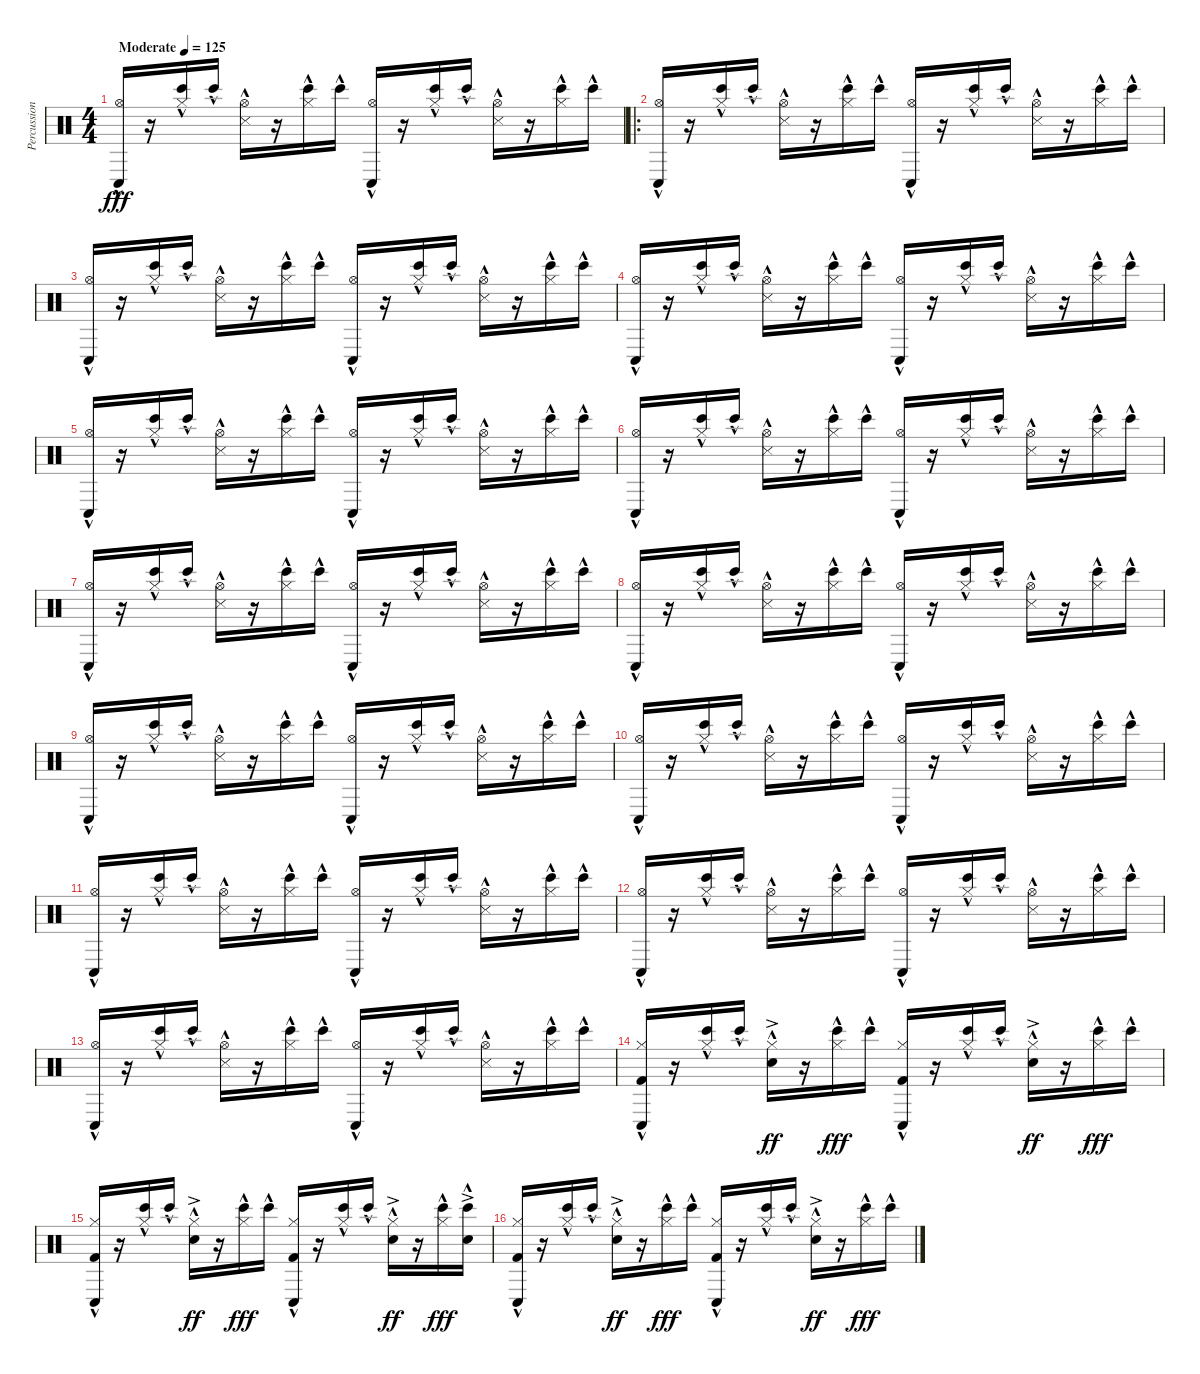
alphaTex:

\track ("Percussion" "Percussion") {instrument percussion}
\staff {score}
\articulation defaults
\ts (4 4)
\tempo (125 "Moderate")
\clef neutral
\ks c
("Hi-Hat (open)"{hac} "Conga low (hit)"{hac}).16{dy fff} r.16 ("Hi-Hat (closed)"{hac} "Bongo High (hit)"{hac}).16 "Bongo High (hit)"{hac}.16 ("Hi-Hat (open)"{hac} "Snare (side stick) 3"{hac}).16 r.16 ("Hi-Hat (closed)"{hac} "Bongo High (hit)"{hac}).16 "Bongo High (hit)"{hac}.16 ("Hi-Hat (open)"{hac} "Conga low (hit)"{hac}).16 r.16 ("Hi-Hat (closed)"{hac} "Bongo High (hit)"{hac}).16 "Bongo High (hit)"{hac}.16 ("Hi-Hat (open)"{hac} "Snare (side stick) 3"{hac}).16 r.16 ("Hi-Hat (closed)"{hac} "Bongo High (hit)"{hac}).16 "Bongo High (hit)"{hac}.16 |
\ro
("Hi-Hat (open)"{hac} "Conga low (hit)"{hac}).16 r.16 ("Hi-Hat (closed)"{hac} "Bongo High (hit)"{hac}).16 "Bongo High (hit)"{hac}.16 ("Hi-Hat (open)"{hac} "Snare (side stick) 3"{hac}).16 r.16 ("Hi-Hat (closed)"{hac} "Bongo High (hit)"{hac}).16 "Bongo High (hit)"{hac}.16 ("Hi-Hat (open)"{hac} "Conga low (hit)"{hac}).16 r.16 ("Hi-Hat (closed)"{hac} "Bongo High (hit)"{hac}).16 "Bongo High (hit)"{hac}.16 ("Hi-Hat (open)"{hac} "Snare (side stick) 3"{hac}).16 r.16 ("Hi-Hat (closed)"{hac} "Bongo High (hit)"{hac}).16 "Bongo High (hit)"{hac}.16 |
("Hi-Hat (open)"{hac} "Conga low (hit)"{hac}).16 r.16 ("Hi-Hat (closed)"{hac} "Bongo High (hit)"{hac}).16 "Bongo High (hit)"{hac}.16 ("Hi-Hat (open)"{hac} "Snare (side stick) 3"{hac}).16 r.16 ("Hi-Hat (closed)"{hac} "Bongo High (hit)"{hac}).16 "Bongo High (hit)"{hac}.16 ("Hi-Hat (open)"{hac} "Conga low (hit)"{hac}).16 r.16 ("Hi-Hat (closed)"{hac} "Bongo High (hit)"{hac}).16 "Bongo High (hit)"{hac}.16 ("Hi-Hat (open)"{hac} "Snare (side stick) 3"{hac}).16 r.16 ("Hi-Hat (closed)"{hac} "Bongo High (hit)"{hac}).16 "Bongo High (hit)"{hac}.16 |
("Hi-Hat (open)"{hac} "Conga low (hit)"{hac}).16 r.16 ("Hi-Hat (closed)"{hac} "Bongo High (hit)"{hac}).16 "Bongo High (hit)"{hac}.16 ("Hi-Hat (open)"{hac} "Snare (side stick) 3"{hac}).16 r.16 ("Hi-Hat (closed)"{hac} "Bongo High (hit)"{hac}).16 "Bongo High (hit)"{hac}.16 ("Hi-Hat (open)"{hac} "Conga low (hit)"{hac}).16 r.16 ("Hi-Hat (closed)"{hac} "Bongo High (hit)"{hac}).16 "Bongo High (hit)"{hac}.16 ("Hi-Hat (open)"{hac} "Snare (side stick) 3"{hac}).16 r.16 ("Hi-Hat (closed)"{hac} "Bongo High (hit)"{hac}).16 "Bongo High (hit)"{hac}.16 |
("Hi-Hat (open)"{hac} "Conga low (hit)"{hac}).16 r.16 ("Hi-Hat (closed)"{hac} "Bongo High (hit)"{hac}).16 "Bongo High (hit)"{hac}.16 ("Hi-Hat (open)"{hac} "Snare (side stick) 3"{hac}).16 r.16 ("Hi-Hat (closed)"{hac} "Bongo High (hit)"{hac}).16 "Bongo High (hit)"{hac}.16 ("Hi-Hat (open)"{hac} "Conga low (hit)"{hac}).16 r.16 ("Hi-Hat (closed)"{hac} "Bongo High (hit)"{hac}).16 "Bongo High (hit)"{hac}.16 ("Hi-Hat (open)"{hac} "Snare (side stick) 3"{hac}).16 r.16 ("Hi-Hat (closed)"{hac} "Bongo High (hit)"{hac}).16 "Bongo High (hit)"{hac}.16 |
("Hi-Hat (open)"{hac} "Conga low (hit)"{hac}).16 r.16 ("Hi-Hat (closed)"{hac} "Bongo High (hit)"{hac}).16 "Bongo High (hit)"{hac}.16 ("Hi-Hat (open)"{hac} "Snare (side stick) 3"{hac}).16 r.16 ("Hi-Hat (closed)"{hac} "Bongo High (hit)"{hac}).16 "Bongo High (hit)"{hac}.16 ("Hi-Hat (open)"{hac} "Conga low (hit)"{hac}).16 r.16 ("Hi-Hat (closed)"{hac} "Bongo High (hit)"{hac}).16 "Bongo High (hit)"{hac}.16 ("Hi-Hat (open)"{hac} "Snare (side stick) 3"{hac}).16 r.16 ("Hi-Hat (closed)"{hac} "Bongo High (hit)"{hac}).16 "Bongo High (hit)"{hac}.16 |
("Hi-Hat (open)"{hac} "Conga low (hit)"{hac}).16 r.16 ("Hi-Hat (closed)"{hac} "Bongo High (hit)"{hac}).16 "Bongo High (hit)"{hac}.16 ("Hi-Hat (open)"{hac} "Snare (side stick) 3"{hac}).16 r.16 ("Hi-Hat (closed)"{hac} "Bongo High (hit)"{hac}).16 "Bongo High (hit)"{hac}.16 ("Hi-Hat (open)"{hac} "Conga low (hit)"{hac}).16 r.16 ("Hi-Hat (closed)"{hac} "Bongo High (hit)"{hac}).16 "Bongo High (hit)"{hac}.16 ("Hi-Hat (open)"{hac} "Snare (side stick) 3"{hac}).16 r.16 ("Hi-Hat (closed)"{hac} "Bongo High (hit)"{hac}).16 "Bongo High (hit)"{hac}.16 |
("Hi-Hat (open)"{hac} "Conga low (hit)"{hac}).16 r.16 ("Hi-Hat (closed)"{hac} "Bongo High (hit)"{hac}).16 "Bongo High (hit)"{hac}.16 ("Hi-Hat (open)"{hac} "Snare (side stick) 3"{hac}).16 r.16 ("Hi-Hat (closed)"{hac} "Bongo High (hit)"{hac}).16 "Bongo High (hit)"{hac}.16 ("Hi-Hat (open)"{hac} "Conga low (hit)"{hac}).16 r.16 ("Hi-Hat (closed)"{hac} "Bongo High (hit)"{hac}).16 "Bongo High (hit)"{hac}.16 ("Hi-Hat (open)"{hac} "Snare (side stick) 3"{hac}).16 r.16 ("Hi-Hat (closed)"{hac} "Bongo High (hit)"{hac}).16 "Bongo High (hit)"{hac}.16 |
("Hi-Hat (open)"{hac} "Conga low (hit)"{hac}).16 r.16 ("Hi-Hat (closed)"{hac} "Bongo High (hit)"{hac}).16 "Bongo High (hit)"{hac}.16 ("Hi-Hat (open)"{hac} "Snare (side stick) 3"{hac}).16 r.16 ("Hi-Hat (closed)"{hac} "Bongo High (hit)"{hac}).16 "Bongo High (hit)"{hac}.16 ("Hi-Hat (open)"{hac} "Conga low (hit)"{hac}).16 r.16 ("Hi-Hat (closed)"{hac} "Bongo High (hit)"{hac}).16 "Bongo High (hit)"{hac}.16 ("Hi-Hat (open)"{hac} "Snare (side stick) 3"{hac}).16 r.16 ("Hi-Hat (closed)"{hac} "Bongo High (hit)"{hac}).16 "Bongo High (hit)"{hac}.16 |
("Hi-Hat (open)"{hac} "Conga low (hit)"{hac}).16 r.16 ("Hi-Hat (closed)"{hac} "Bongo High (hit)"{hac}).16 "Bongo High (hit)"{hac}.16 ("Hi-Hat (open)"{hac} "Snare (side stick) 3"{hac}).16 r.16 ("Hi-Hat (closed)"{hac} "Bongo High (hit)"{hac}).16 "Bongo High (hit)"{hac}.16 ("Hi-Hat (open)"{hac} "Conga low (hit)"{hac}).16 r.16 ("Hi-Hat (closed)"{hac} "Bongo High (hit)"{hac}).16 "Bongo High (hit)"{hac}.16 ("Hi-Hat (open)"{hac} "Snare (side stick) 3"{hac}).16 r.16 ("Hi-Hat (closed)"{hac} "Bongo High (hit)"{hac}).16 "Bongo High (hit)"{hac}.16 |
("Hi-Hat (open)"{hac} "Conga low (hit)"{hac}).16 r.16 ("Hi-Hat (closed)"{hac} "Bongo High (hit)"{hac}).16 "Bongo High (hit)"{hac}.16 ("Hi-Hat (open)"{hac} "Snare (side stick) 3"{hac}).16 r.16 ("Hi-Hat (closed)"{hac} "Bongo High (hit)"{hac}).16 "Bongo High (hit)"{hac}.16 ("Hi-Hat (open)"{hac} "Conga low (hit)"{hac}).16 r.16 ("Hi-Hat (closed)"{hac} "Bongo High (hit)"{hac}).16 "Bongo High (hit)"{hac}.16 ("Hi-Hat (open)"{hac} "Snare (side stick) 3"{hac}).16 r.16 ("Hi-Hat (closed)"{hac} "Bongo High (hit)"{hac}).16 "Bongo High (hit)"{hac}.16 |
("Hi-Hat (open)"{hac} "Conga low (hit)"{hac}).16 r.16 ("Hi-Hat (closed)"{hac} "Bongo High (hit)"{hac}).16 "Bongo High (hit)"{hac}.16 ("Hi-Hat (open)"{hac} "Snare (side stick) 3"{hac}).16 r.16 ("Hi-Hat (closed)"{hac} "Bongo High (hit)"{hac}).16 "Bongo High (hit)"{hac}.16 ("Hi-Hat (open)"{hac} "Conga low (hit)"{hac}).16 r.16 ("Hi-Hat (closed)"{hac} "Bongo High (hit)"{hac}).16 "Bongo High (hit)"{hac}.16 ("Hi-Hat (open)"{hac} "Snare (side stick) 3"{hac}).16 r.16 ("Hi-Hat (closed)"{hac} "Bongo High (hit)"{hac}).16 "Bongo High (hit)"{hac}.16 |
("Hi-Hat (open)"{hac} "Conga low (hit)"{hac}).16 r.16 ("Hi-Hat (closed)"{hac} "Bongo High (hit)"{hac}).16 "Bongo High (hit)"{hac}.16 ("Hi-Hat (open)"{hac} "Snare (side stick) 3"{hac}).16 r.16 ("Hi-Hat (closed)"{hac} "Bongo High (hit)"{hac}).16 "Bongo High (hit)"{hac}.16 ("Hi-Hat (open)"{hac} "Conga low (hit)"{hac}).16 r.16 ("Hi-Hat (closed)"{hac} "Bongo High (hit)"{hac}).16 "Bongo High (hit)"{hac}.16 ("Hi-Hat (open)"{hac} "Snare (side stick) 3"{hac}).16 r.16 ("Hi-Hat (closed)"{hac} "Bongo High (hit)"{hac}).16 "Bongo High (hit)"{hac}.16 |
("Hi-Hat (closed)"{hac} "Conga low (hit)"{hac} "Kick (hit) 2"{hac}).16 r.16 ("Hi-Hat (closed)"{hac} "Bongo High (hit)"{hac}).16 "Bongo High (hit)"{hac}.16 ("Hi-Hat (closed)"{hac} "Snare (hit) 2"{ac}).16{dy ff} r.16 ("Hi-Hat (closed)"{hac} "Bongo High (hit)"{hac}).16{dy fff} "Bongo High (hit)"{hac}.16 ("Hi-Hat (closed)"{hac} "Conga low (hit)"{hac} "Kick (hit) 2"{hac}).16 r.16 ("Hi-Hat (closed)"{hac} "Bongo High (hit)"{hac}).16 "Bongo High (hit)"{hac}.16 ("Hi-Hat (closed)"{hac} "Snare (hit) 2"{ac}).16{dy ff} r.16 ("Hi-Hat (closed)"{hac} "Bongo High (hit)"{hac}).16{dy fff} "Bongo High (hit)"{hac}.16 |
("Hi-Hat (closed)"{hac} "Conga low (hit)"{hac} "Kick (hit) 2"{hac}).16 r.16 ("Hi-Hat (closed)"{hac} "Bongo High (hit)"{hac}).16 "Bongo High (hit)"{hac}.16 ("Hi-Hat (closed)"{hac} "Snare (hit) 2"{ac}).16{dy ff} r.16 ("Hi-Hat (closed)"{hac} "Bongo High (hit)"{hac}).16{dy fff} "Bongo High (hit)"{hac}.16 ("Hi-Hat (closed)"{hac} "Conga low (hit)"{hac} "Kick (hit) 2"{hac}).16 r.16 ("Hi-Hat (closed)"{hac} "Bongo High (hit)"{hac}).16 "Bongo High (hit)"{hac}.16 ("Hi-Hat (closed)"{hac} "Snare (hit) 2"{ac}).16{dy ff} r.16 ("Hi-Hat (closed)"{hac} "Bongo High (hit)"{hac}).16{dy fff} ("Snare (hit) 2"{ac} "Bongo High (hit)"{hac}).16 |
("Hi-Hat (closed)"{hac} "Conga low (hit)"{hac} "Kick (hit) 2"{hac}).16 r.16 ("Hi-Hat (closed)"{hac} "Bongo High (hit)"{hac}).16 "Bongo High (hit)"{hac}.16 ("Hi-Hat (closed)"{hac} "Snare (hit) 2"{ac}).16{dy ff} r.16 ("Hi-Hat (closed)"{hac} "Bongo High (hit)"{hac}).16{dy fff} "Bongo High (hit)"{hac}.16 ("Hi-Hat (closed)"{hac} "Conga low (hit)"{hac} "Kick (hit) 2"{hac}).16 r.16 ("Hi-Hat (closed)"{hac} "Bongo High (hit)"{hac}).16 "Bongo High (hit)"{hac}.16 ("Hi-Hat (closed)"{hac} "Snare (hit) 2"{ac}).16{dy ff} r.16 ("Hi-Hat (closed)"{hac} "Bongo High (hit)"{hac}).16{dy fff} "Bongo High (hit)"{hac}.16
